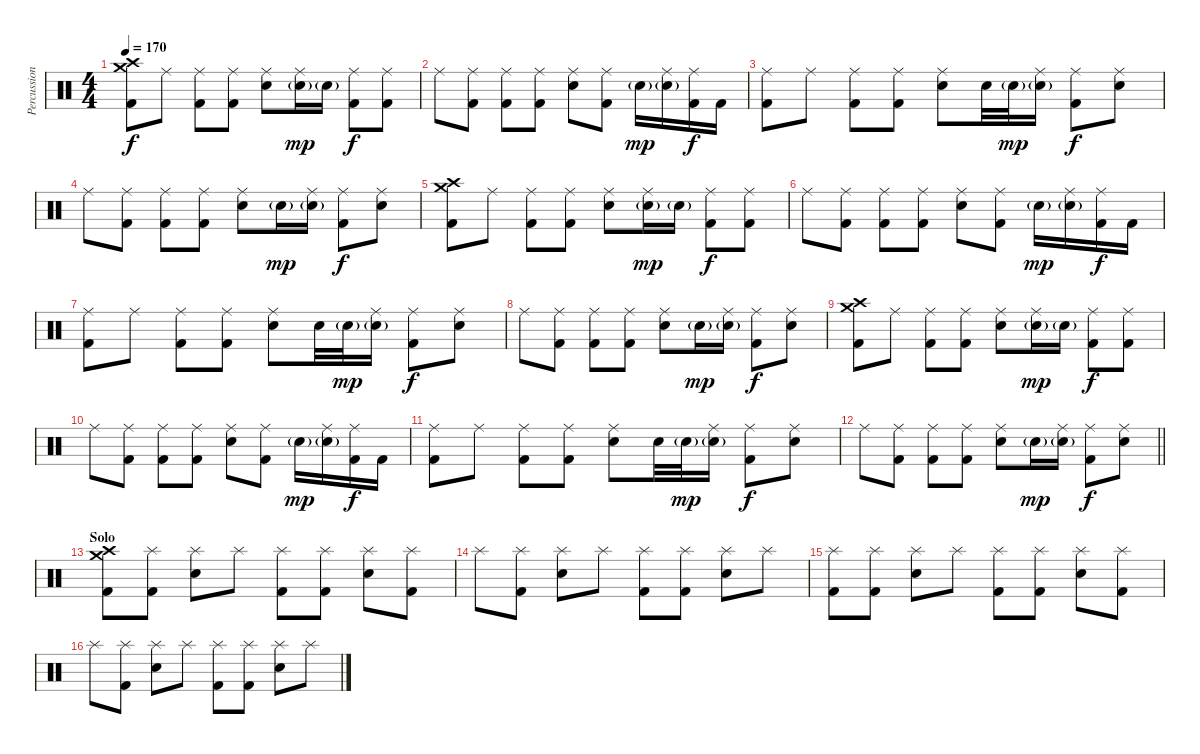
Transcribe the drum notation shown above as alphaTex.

\track ("Percussion" "Percussion") {instrument percussion}
\staff {score}
\articulation defaults
\ts (4 4)
\tempo 170
\clef neutral
\ks c
("Crash medium (hit)" "Crash high (hit)" "Kick (hit) 2").8{dy f} "Ride (middle)".8 ("Ride (middle)" "Kick (hit) 2").8 ("Ride (middle)" "Kick (hit) 2").8 ("Ride (middle)" "Electric Snare (hit)").8 ("Ride (middle)" "Electric Snare (hit)"{g}).16{dy mp} "Electric Snare (hit)"{g}.16 ("Ride (middle)" "Kick (hit) 2").8{dy f} ("Ride (middle)" "Kick (hit) 2").8 |
"Ride (middle)".8 ("Ride (middle)" "Kick (hit) 2").8 ("Ride (middle)" "Kick (hit) 2").8 ("Ride (middle)" "Kick (hit) 2").8 ("Ride (middle)" "Electric Snare (hit)").8 ("Ride (middle)" "Kick (hit) 2").8 "Electric Snare (hit)"{g}.16{dy mp} ("Ride (middle)" "Electric Snare (hit)"{g}).16 ("Ride (middle)" "Kick (hit) 2").16{dy f} "Kick (hit) 2".16 |
("Ride (middle)" "Kick (hit) 2").8 "Ride (middle)".8 ("Ride (middle)" "Kick (hit) 2").8 ("Ride (middle)" "Kick (hit) 2").8 ("Ride (middle)" "Electric Snare (hit)").8 "Electric Snare (hit)".32 "Electric Snare (hit)"{g}.32{dy mp} ("Ride (middle)" "Electric Snare (hit)"{g}).16 ("Ride (middle)" "Kick (hit) 2").8{dy f} ("Ride (middle)" "Electric Snare (hit)").8 |
"Ride (middle)".8 ("Ride (middle)" "Kick (hit) 2").8 ("Ride (middle)" "Kick (hit) 2").8 ("Ride (middle)" "Kick (hit) 2").8 ("Ride (middle)" "Electric Snare (hit)").8 "Electric Snare (hit)"{g}.16{dy mp} ("Ride (middle)" "Electric Snare (hit)"{g}).16 ("Ride (middle)" "Kick (hit) 2").8{dy f} ("Ride (middle)" "Electric Snare (hit)").8 |
("Crash medium (hit)" "Crash high (hit)" "Kick (hit) 2").8 "Ride (middle)".8 ("Ride (middle)" "Kick (hit) 2").8 ("Ride (middle)" "Kick (hit) 2").8 ("Ride (middle)" "Electric Snare (hit)").8 ("Ride (middle)" "Electric Snare (hit)"{g}).16{dy mp} "Electric Snare (hit)"{g}.16 ("Ride (middle)" "Kick (hit) 2").8{dy f} ("Ride (middle)" "Kick (hit) 2").8 |
"Ride (middle)".8 ("Ride (middle)" "Kick (hit) 2").8 ("Ride (middle)" "Kick (hit) 2").8 ("Ride (middle)" "Kick (hit) 2").8 ("Ride (middle)" "Electric Snare (hit)").8 ("Ride (middle)" "Kick (hit) 2").8 "Electric Snare (hit)"{g}.16{dy mp} ("Ride (middle)" "Electric Snare (hit)"{g}).16 ("Ride (middle)" "Kick (hit) 2").16{dy f} "Kick (hit) 2".16 |
("Ride (middle)" "Kick (hit) 2").8 "Ride (middle)".8 ("Ride (middle)" "Kick (hit) 2").8 ("Ride (middle)" "Kick (hit) 2").8 ("Ride (middle)" "Electric Snare (hit)").8 "Electric Snare (hit)".32 "Electric Snare (hit)"{g}.32{dy mp} ("Ride (middle)" "Electric Snare (hit)"{g}).16 ("Ride (middle)" "Kick (hit) 2").8{dy f} ("Ride (middle)" "Electric Snare (hit)").8 |
"Ride (middle)".8 ("Ride (middle)" "Kick (hit) 2").8 ("Ride (middle)" "Kick (hit) 2").8 ("Ride (middle)" "Kick (hit) 2").8 ("Ride (middle)" "Electric Snare (hit)").8 "Electric Snare (hit)"{g}.16{dy mp} ("Ride (middle)" "Electric Snare (hit)"{g}).16 ("Ride (middle)" "Kick (hit) 2").8{dy f} ("Ride (middle)" "Electric Snare (hit)").8 |
("Crash medium (hit)" "Crash high (hit)" "Kick (hit) 2").8 "Ride (middle)".8 ("Ride (middle)" "Kick (hit) 2").8 ("Ride (middle)" "Kick (hit) 2").8 ("Ride (middle)" "Electric Snare (hit)").8 ("Ride (middle)" "Electric Snare (hit)"{g}).16{dy mp} "Electric Snare (hit)"{g}.16 ("Ride (middle)" "Kick (hit) 2").8{dy f} ("Ride (middle)" "Kick (hit) 2").8 |
"Ride (middle)".8 ("Ride (middle)" "Kick (hit) 2").8 ("Ride (middle)" "Kick (hit) 2").8 ("Ride (middle)" "Kick (hit) 2").8 ("Ride (middle)" "Electric Snare (hit)").8 ("Ride (middle)" "Kick (hit) 2").8 "Electric Snare (hit)"{g}.16{dy mp} ("Ride (middle)" "Electric Snare (hit)"{g}).16 ("Ride (middle)" "Kick (hit) 2").16{dy f} "Kick (hit) 2".16 |
("Ride (middle)" "Kick (hit) 2").8 "Ride (middle)".8 ("Ride (middle)" "Kick (hit) 2").8 ("Ride (middle)" "Kick (hit) 2").8 ("Ride (middle)" "Electric Snare (hit)").8 "Electric Snare (hit)".32 "Electric Snare (hit)"{g}.32{dy mp} ("Ride (middle)" "Electric Snare (hit)"{g}).16 ("Ride (middle)" "Kick (hit) 2").8{dy f} ("Ride (middle)" "Electric Snare (hit)").8 |
\barLineRight lightlight "Ride (middle)".8
("Ride (middle)" "Kick (hit) 2").8 ("Ride (middle)" "Kick (hit) 2").8 ("Ride (middle)" "Kick (hit) 2").8 ("Ride (middle)" "Electric Snare (hit)").8 "Electric Snare (hit)"{g}.16{dy mp} ("Ride (middle)" "Electric Snare (hit)"{g}).16 ("Ride (middle)" "Kick (hit) 2").8{dy f} ("Ride (middle)" "Electric Snare (hit)").8 |
\section ("" "Solo")
("Crash medium (hit)" "Crash high (hit)" "Kick (hit) 2").8 ("Splash (hit)" "Kick (hit) 2").8 ("Splash (hit)" "Electric Snare (hit)").8 "Splash (hit)".8 ("Splash (hit)" "Kick (hit) 2").8 ("Splash (hit)" "Kick (hit) 2").8 ("Splash (hit)" "Electric Snare (hit)").8 ("Splash (hit)" "Kick (hit) 2").8 |
"Splash (hit)".8 ("Splash (hit)" "Kick (hit) 2").8 ("Splash (hit)" "Electric Snare (hit)").8 "Splash (hit)".8 ("Splash (hit)" "Kick (hit) 2").8 ("Splash (hit)" "Kick (hit) 2").8 ("Splash (hit)" "Electric Snare (hit)").8 "Splash (hit)".8 |
("Splash (hit)" "Kick (hit) 2").8 ("Splash (hit)" "Kick (hit) 2").8 ("Splash (hit)" "Electric Snare (hit)").8 "Splash (hit)".8 ("Splash (hit)" "Kick (hit) 2").8 ("Splash (hit)" "Kick (hit) 2").8 ("Splash (hit)" "Electric Snare (hit)").8 ("Splash (hit)" "Kick (hit) 2").8 |
"Splash (hit)".8 ("Splash (hit)" "Kick (hit) 2").8 ("Splash (hit)" "Electric Snare (hit)").8 "Splash (hit)".8 ("Splash (hit)" "Kick (hit) 2").8 ("Splash (hit)" "Kick (hit) 2").8 ("Splash (hit)" "Electric Snare (hit)").8 "Splash (hit)".8
